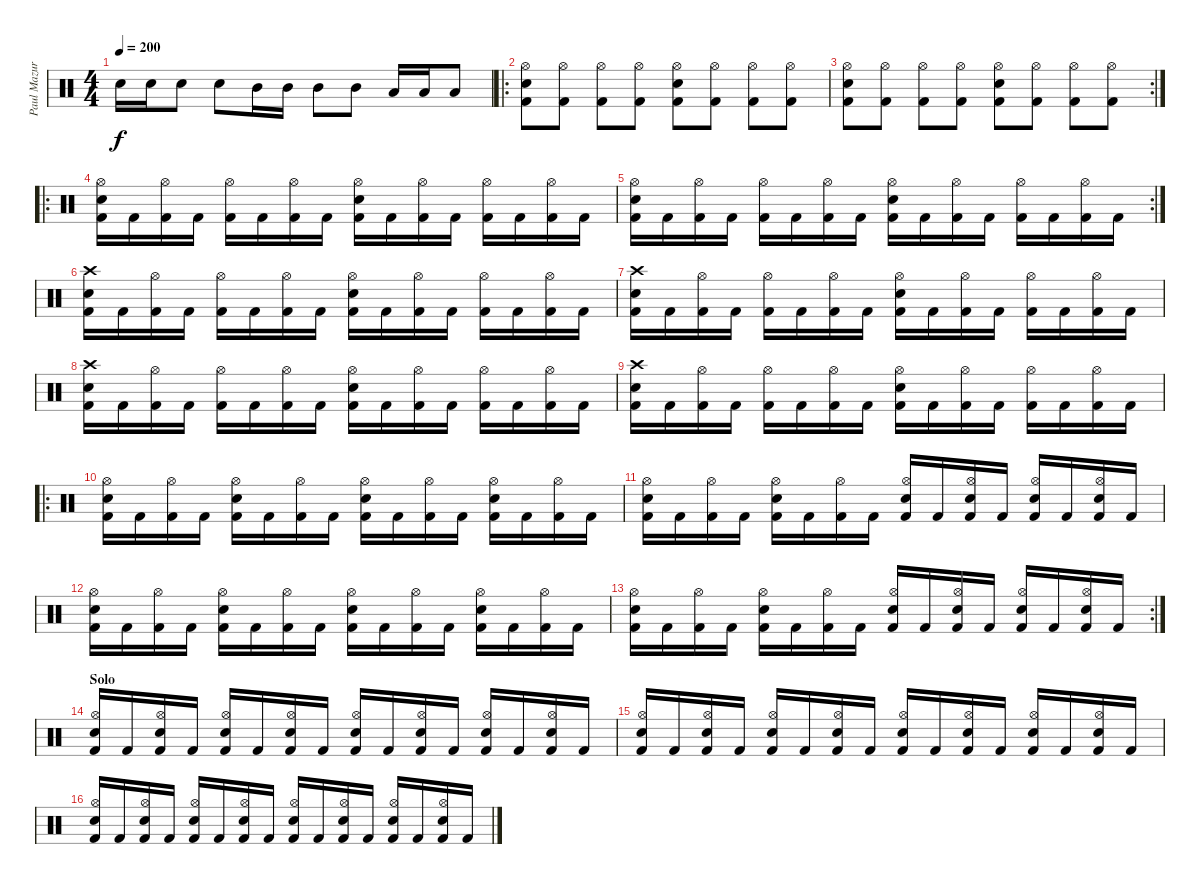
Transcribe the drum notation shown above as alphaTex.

\track ("Paul Mazurkiewicz" "Paul Mazur") {instrument percussion}
\staff {score}
\articulation defaults
\ts (4 4)
\tempo 200
\clef neutral
\ks c "Snare (hit) 2".16{dy f} "Snare (hit) 2".16 "Snare (hit) 2".8 "Snare (hit) 2".8 "Mid Tom (hit)".16 "Mid Tom (hit)".16 "Mid Tom (hit)".8 "Mid Tom (hit)".8 "Low Tom (hit)".16 "Low Tom (hit)".16 "Low Tom (hit)".8
|
\ro
("Hi-Hat (open)" "Snare (hit) 2" "Kick (hit) 2").8 ("Hi-Hat (open)" "Kick (hit) 2").8 ("Hi-Hat (open)" "Kick (hit) 2").8 ("Hi-Hat (open)" "Kick (hit) 2").8 ("Hi-Hat (open)" "Snare (hit) 2" "Kick (hit) 2").8 ("Hi-Hat (open)" "Kick (hit) 2").8 ("Hi-Hat (open)" "Kick (hit) 2").8 ("Hi-Hat (open)" "Kick (hit) 2").8 |
\rc 2
("Hi-Hat (open)" "Snare (hit) 2" "Kick (hit) 2").8 ("Hi-Hat (open)" "Kick (hit) 2").8 ("Hi-Hat (open)" "Kick (hit) 2").8 ("Hi-Hat (open)" "Kick (hit) 2").8 ("Hi-Hat (open)" "Snare (hit) 2" "Kick (hit) 2").8 ("Hi-Hat (open)" "Kick (hit) 2").8 ("Hi-Hat (open)" "Kick (hit) 2").8 ("Hi-Hat (open)" "Kick (hit) 2").8 |
\ro
("Hi-Hat (open)" "Snare (hit) 2" "Kick (hit) 2").16 "Kick (hit) 2".16 ("Hi-Hat (open)" "Kick (hit) 2").16 "Kick (hit) 2".16 ("Hi-Hat (open)" "Kick (hit) 2").16 "Kick (hit) 2".16 ("Hi-Hat (open)" "Kick (hit) 2").16 "Kick (hit) 2".16 ("Hi-Hat (open)" "Snare (hit) 2" "Kick (hit) 2").16 "Kick (hit) 2".16 ("Hi-Hat (open)" "Kick (hit) 2").16 "Kick (hit) 2".16 ("Hi-Hat (open)" "Kick (hit) 2").16 "Kick (hit) 2".16 ("Hi-Hat (open)" "Kick (hit) 2").16 "Kick (hit) 2".16 |
\rc 2
("Hi-Hat (open)" "Snare (hit) 2" "Kick (hit) 2").16 "Kick (hit) 2".16 ("Hi-Hat (open)" "Kick (hit) 2").16 "Kick (hit) 2".16 ("Hi-Hat (open)" "Kick (hit) 2").16 "Kick (hit) 2".16 ("Hi-Hat (open)" "Kick (hit) 2").16 "Kick (hit) 2".16 ("Hi-Hat (open)" "Snare (hit) 2" "Kick (hit) 2").16 "Kick (hit) 2".16 ("Hi-Hat (open)" "Kick (hit) 2").16 "Kick (hit) 2".16 ("Hi-Hat (open)" "Kick (hit) 2").16 "Kick (hit) 2".16 ("Hi-Hat (open)" "Kick (hit) 2").16 "Kick (hit) 2".16 |
("Crash high (hit)" "Snare (hit) 2" "Kick (hit) 2").16 "Kick (hit) 2".16 ("Hi-Hat (open)" "Kick (hit) 2").16 "Kick (hit) 2".16 ("Hi-Hat (open)" "Kick (hit) 2").16 "Kick (hit) 2".16 ("Hi-Hat (open)" "Kick (hit) 2").16 "Kick (hit) 2".16 ("Hi-Hat (open)" "Snare (hit) 2" "Kick (hit) 2").16 "Kick (hit) 2".16 ("Hi-Hat (open)" "Kick (hit) 2").16 "Kick (hit) 2".16 ("Hi-Hat (open)" "Kick (hit) 2").16 "Kick (hit) 2".16 ("Hi-Hat (open)" "Kick (hit) 2").16 "Kick (hit) 2".16 |
("Crash high (hit)" "Snare (hit) 2" "Kick (hit) 2").16 "Kick (hit) 2".16 ("Hi-Hat (open)" "Kick (hit) 2").16 "Kick (hit) 2".16 ("Hi-Hat (open)" "Kick (hit) 2").16 "Kick (hit) 2".16 ("Hi-Hat (open)" "Kick (hit) 2").16 "Kick (hit) 2".16 ("Hi-Hat (open)" "Snare (hit) 2" "Kick (hit) 2").16 "Kick (hit) 2".16 ("Hi-Hat (open)" "Kick (hit) 2").16 "Kick (hit) 2".16 ("Hi-Hat (open)" "Kick (hit) 2").16 "Kick (hit) 2".16 ("Hi-Hat (open)" "Kick (hit) 2").16 "Kick (hit) 2".16 |
("Crash high (hit)" "Snare (hit) 2" "Kick (hit) 2").16 "Kick (hit) 2".16 ("Hi-Hat (open)" "Kick (hit) 2").16 "Kick (hit) 2".16 ("Hi-Hat (open)" "Kick (hit) 2").16 "Kick (hit) 2".16 ("Hi-Hat (open)" "Kick (hit) 2").16 "Kick (hit) 2".16 ("Hi-Hat (open)" "Snare (hit) 2" "Kick (hit) 2").16 "Kick (hit) 2".16 ("Hi-Hat (open)" "Kick (hit) 2").16 "Kick (hit) 2".16 ("Hi-Hat (open)" "Kick (hit) 2").16 "Kick (hit) 2".16 ("Hi-Hat (open)" "Kick (hit) 2").16 "Kick (hit) 2".16 |
("Crash high (hit)" "Snare (hit) 2" "Kick (hit) 2").16 "Kick (hit) 2".16 ("Hi-Hat (open)" "Kick (hit) 2").16 "Kick (hit) 2".16 ("Hi-Hat (open)" "Kick (hit) 2").16 "Kick (hit) 2".16 ("Hi-Hat (open)" "Kick (hit) 2").16 "Kick (hit) 2".16 ("Hi-Hat (open)" "Snare (hit) 2" "Kick (hit) 2").16 "Kick (hit) 2".16 ("Hi-Hat (open)" "Kick (hit) 2").16 "Kick (hit) 2".16 ("Hi-Hat (open)" "Kick (hit) 2").16 "Kick (hit) 2".16 ("Hi-Hat (open)" "Kick (hit) 2").16 "Kick (hit) 2".16 |
\ro
("Hi-Hat (open)" "Snare (hit) 2" "Kick (hit) 2").16 "Kick (hit) 2".16 ("Hi-Hat (open)" "Kick (hit) 2").16 "Kick (hit) 2".16 ("Hi-Hat (open)" "Snare (hit) 2" "Kick (hit) 2").16 "Kick (hit) 2".16 ("Hi-Hat (open)" "Kick (hit) 2").16 "Kick (hit) 2".16 ("Hi-Hat (open)" "Snare (hit) 2" "Kick (hit) 2").16 "Kick (hit) 2".16 ("Hi-Hat (open)" "Kick (hit) 2").16 "Kick (hit) 2".16 ("Hi-Hat (open)" "Snare (hit) 2" "Kick (hit) 2").16 "Kick (hit) 2".16 ("Hi-Hat (open)" "Kick (hit) 2").16 "Kick (hit) 2".16 |
("Hi-Hat (open)" "Snare (hit) 2" "Kick (hit) 2").16 "Kick (hit) 2".16 ("Hi-Hat (open)" "Kick (hit) 2").16 "Kick (hit) 2".16 ("Hi-Hat (open)" "Snare (hit) 2" "Kick (hit) 2").16 "Kick (hit) 2".16 ("Hi-Hat (open)" "Kick (hit) 2").16 "Kick (hit) 2".16 ("Hi-Hat (open)" "Snare (hit) 2" "Kick (hit) 2").16 "Kick (hit) 2".16 ("Hi-Hat (open)" "Snare (hit) 2" "Kick (hit) 2").16 "Kick (hit) 2".16 ("Hi-Hat (open)" "Snare (hit) 2" "Kick (hit) 2").16 "Kick (hit) 2".16 ("Hi-Hat (open)" "Snare (hit) 2" "Kick (hit) 2").16 "Kick (hit) 2".16 |
("Hi-Hat (open)" "Snare (hit) 2" "Kick (hit) 2").16 "Kick (hit) 2".16 ("Hi-Hat (open)" "Kick (hit) 2").16 "Kick (hit) 2".16 ("Hi-Hat (open)" "Snare (hit) 2" "Kick (hit) 2").16 "Kick (hit) 2".16 ("Hi-Hat (open)" "Kick (hit) 2").16 "Kick (hit) 2".16 ("Hi-Hat (open)" "Snare (hit) 2" "Kick (hit) 2").16 "Kick (hit) 2".16 ("Hi-Hat (open)" "Kick (hit) 2").16 "Kick (hit) 2".16 ("Hi-Hat (open)" "Snare (hit) 2" "Kick (hit) 2").16 "Kick (hit) 2".16 ("Hi-Hat (open)" "Kick (hit) 2").16 "Kick (hit) 2".16 |
\rc 2
("Hi-Hat (open)" "Snare (hit) 2" "Kick (hit) 2").16 "Kick (hit) 2".16 ("Hi-Hat (open)" "Kick (hit) 2").16 "Kick (hit) 2".16 ("Hi-Hat (open)" "Snare (hit) 2" "Kick (hit) 2").16 "Kick (hit) 2".16 ("Hi-Hat (open)" "Kick (hit) 2").16 "Kick (hit) 2".16 ("Hi-Hat (open)" "Snare (hit) 2" "Kick (hit) 2").16 "Kick (hit) 2".16 ("Hi-Hat (open)" "Snare (hit) 2" "Kick (hit) 2").16 "Kick (hit) 2".16 ("Hi-Hat (open)" "Snare (hit) 2" "Kick (hit) 2").16 "Kick (hit) 2".16 ("Hi-Hat (open)" "Snare (hit) 2" "Kick (hit) 2").16 "Kick (hit) 2".16 |
\section ("" "Solo")
("Hi-Hat (open)" "Snare (hit) 2" "Kick (hit) 2").16 "Kick (hit) 2".16 ("Hi-Hat (open)" "Snare (hit) 2" "Kick (hit) 2").16 "Kick (hit) 2".16 ("Hi-Hat (open)" "Snare (hit) 2" "Kick (hit) 2").16 "Kick (hit) 2".16 ("Hi-Hat (open)" "Snare (hit) 2" "Kick (hit) 2").16 "Kick (hit) 2".16 ("Hi-Hat (open)" "Snare (hit) 2" "Kick (hit) 2").16 "Kick (hit) 2".16 ("Hi-Hat (open)" "Snare (hit) 2" "Kick (hit) 2").16 "Kick (hit) 2".16 ("Hi-Hat (open)" "Snare (hit) 2" "Kick (hit) 2").16 "Kick (hit) 2".16 ("Hi-Hat (open)" "Snare (hit) 2" "Kick (hit) 2").16 "Kick (hit) 2".16 |
("Hi-Hat (open)" "Snare (hit) 2" "Kick (hit) 2").16 "Kick (hit) 2".16 ("Hi-Hat (open)" "Snare (hit) 2" "Kick (hit) 2").16 "Kick (hit) 2".16 ("Hi-Hat (open)" "Snare (hit) 2" "Kick (hit) 2").16 "Kick (hit) 2".16 ("Hi-Hat (open)" "Snare (hit) 2" "Kick (hit) 2").16 "Kick (hit) 2".16 ("Hi-Hat (open)" "Snare (hit) 2" "Kick (hit) 2").16 "Kick (hit) 2".16 ("Hi-Hat (open)" "Snare (hit) 2" "Kick (hit) 2").16 "Kick (hit) 2".16 ("Hi-Hat (open)" "Snare (hit) 2" "Kick (hit) 2").16 "Kick (hit) 2".16 ("Hi-Hat (open)" "Snare (hit) 2" "Kick (hit) 2").16 "Kick (hit) 2".16 |
("Hi-Hat (open)" "Snare (hit) 2" "Kick (hit) 2").16 "Kick (hit) 2".16 ("Hi-Hat (open)" "Snare (hit) 2" "Kick (hit) 2").16 "Kick (hit) 2".16 ("Hi-Hat (open)" "Snare (hit) 2" "Kick (hit) 2").16 "Kick (hit) 2".16 ("Hi-Hat (open)" "Snare (hit) 2" "Kick (hit) 2").16 "Kick (hit) 2".16 ("Hi-Hat (open)" "Snare (hit) 2" "Kick (hit) 2").16 "Kick (hit) 2".16 ("Hi-Hat (open)" "Snare (hit) 2" "Kick (hit) 2").16 "Kick (hit) 2".16 ("Hi-Hat (open)" "Snare (hit) 2" "Kick (hit) 2").16 "Kick (hit) 2".16 ("Hi-Hat (open)" "Snare (hit) 2" "Kick (hit) 2").16 "Kick (hit) 2".16
